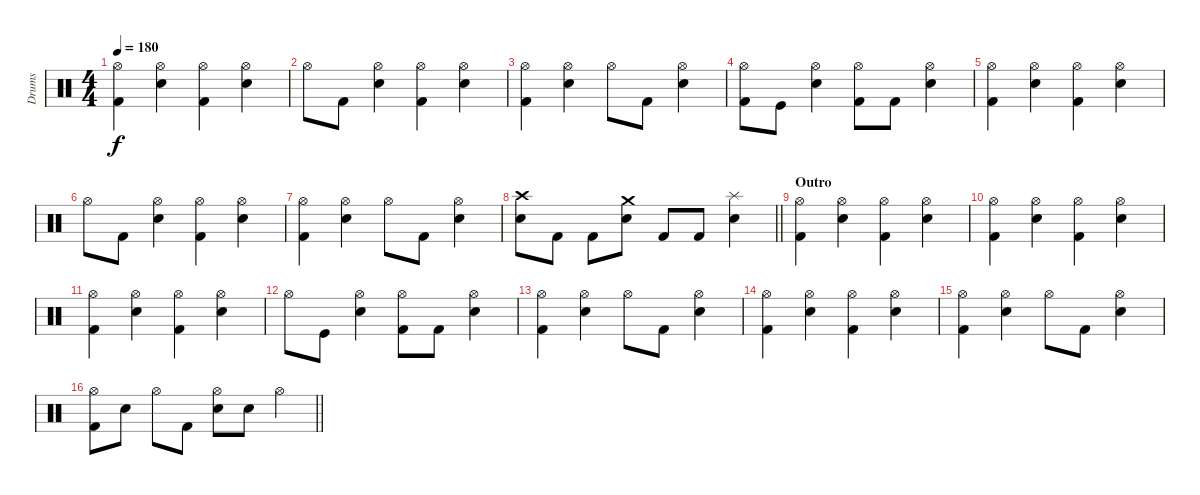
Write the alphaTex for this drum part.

\track ("Drums" "Drums") {instrument percussion}
\staff {score}
\articulation defaults
\ts (4 4)
\tempo 180
\clef neutral
\ks c
("Hi-Hat (open)" "Kick (hit) 2").4{dy f} ("Hi-Hat (open)" "Electric Snare (hit)").4 ("Hi-Hat (open)" "Kick (hit) 2").4 ("Hi-Hat (open)" "Electric Snare (hit)").4 |
"Hi-Hat (open)".8 "Kick (hit) 2".8 ("Hi-Hat (open)" "Electric Snare (hit)").4 ("Hi-Hat (open)" "Kick (hit) 2").4 ("Hi-Hat (open)" "Electric Snare (hit)").4 |
("Hi-Hat (open)" "Kick (hit) 2").4 ("Hi-Hat (open)" "Electric Snare (hit)").4 "Hi-Hat (open)".8 "Kick (hit) 2".8 ("Hi-Hat (open)" "Electric Snare (hit)").4 |
("Hi-Hat (open)" "Kick (hit) 2").8 "Kick (hit)".8 ("Hi-Hat (open)" "Electric Snare (hit)").4 ("Hi-Hat (open)" "Kick (hit) 2").8 "Kick (hit) 2".8 ("Hi-Hat (open)" "Electric Snare (hit)").4 |
("Hi-Hat (open)" "Kick (hit) 2").4 ("Hi-Hat (open)" "Electric Snare (hit)").4 ("Hi-Hat (open)" "Kick (hit) 2").4 ("Hi-Hat (open)" "Electric Snare (hit)").4 |
"Hi-Hat (open)".8 "Kick (hit) 2".8 ("Hi-Hat (open)" "Electric Snare (hit)").4 ("Hi-Hat (open)" "Kick (hit) 2").4 ("Hi-Hat (open)" "Electric Snare (hit)").4 |
("Hi-Hat (open)" "Kick (hit) 2").4 ("Hi-Hat (open)" "Electric Snare (hit)").4 "Hi-Hat (open)".8 "Kick (hit) 2".8 ("Hi-Hat (open)" "Electric Snare (hit)").4 |
\barLineRight lightlight
("Crash high (hit)" "Electric Snare (hit)").8 "Kick (hit) 2".8 "Kick (hit) 2".8 ("Crash medium (hit)" "Electric Snare (hit)").8 "Kick (hit) 2".8 "Kick (hit) 2".8 ("Splash (hit)" "Electric Snare (hit)").4 |
\section ("" "Outro")
("Hi-Hat (open)" "Kick (hit) 2").4 ("Hi-Hat (open)" "Electric Snare (hit)").4 ("Hi-Hat (open)" "Kick (hit) 2").4 ("Hi-Hat (open)" "Electric Snare (hit)").4 |
("Hi-Hat (open)" "Kick (hit) 2").4 ("Hi-Hat (open)" "Electric Snare (hit)").4 ("Hi-Hat (open)" "Kick (hit) 2").4 ("Hi-Hat (open)" "Electric Snare (hit)").4 |
("Hi-Hat (open)" "Kick (hit) 2").4 ("Hi-Hat (open)" "Electric Snare (hit)").4 ("Hi-Hat (open)" "Kick (hit) 2").4 ("Hi-Hat (open)" "Electric Snare (hit)").4 |
"Hi-Hat (open)".8 "Kick (hit)".8 ("Hi-Hat (open)" "Electric Snare (hit)").4 ("Hi-Hat (open)" "Kick (hit) 2").8 "Kick (hit) 2".8 ("Hi-Hat (open)" "Electric Snare (hit)").4 |
("Hi-Hat (open)" "Kick (hit) 2").4 ("Hi-Hat (open)" "Electric Snare (hit)").4 "Hi-Hat (open)".8 "Kick (hit) 2".8 ("Hi-Hat (open)" "Electric Snare (hit)").4 |
("Hi-Hat (open)" "Kick (hit) 2").4 ("Hi-Hat (open)" "Electric Snare (hit)").4 ("Hi-Hat (open)" "Kick (hit) 2").4 ("Hi-Hat (open)" "Electric Snare (hit)").4 |
("Hi-Hat (open)" "Kick (hit) 2").4 ("Hi-Hat (open)" "Electric Snare (hit)").4 "Hi-Hat (open)".8 "Kick (hit) 2".8 ("Hi-Hat (open)" "Electric Snare (hit)").4 |
\barLineRight lightlight
("Hi-Hat (open)" "Kick (hit) 2").8 "Electric Snare (hit)".8 "Hi-Hat (open)".8 "Kick (hit) 2".8 ("Hi-Hat (open)" "Electric Snare (hit)").8 "Electric Snare (hit)".8 "Hi-Hat (open)".4
